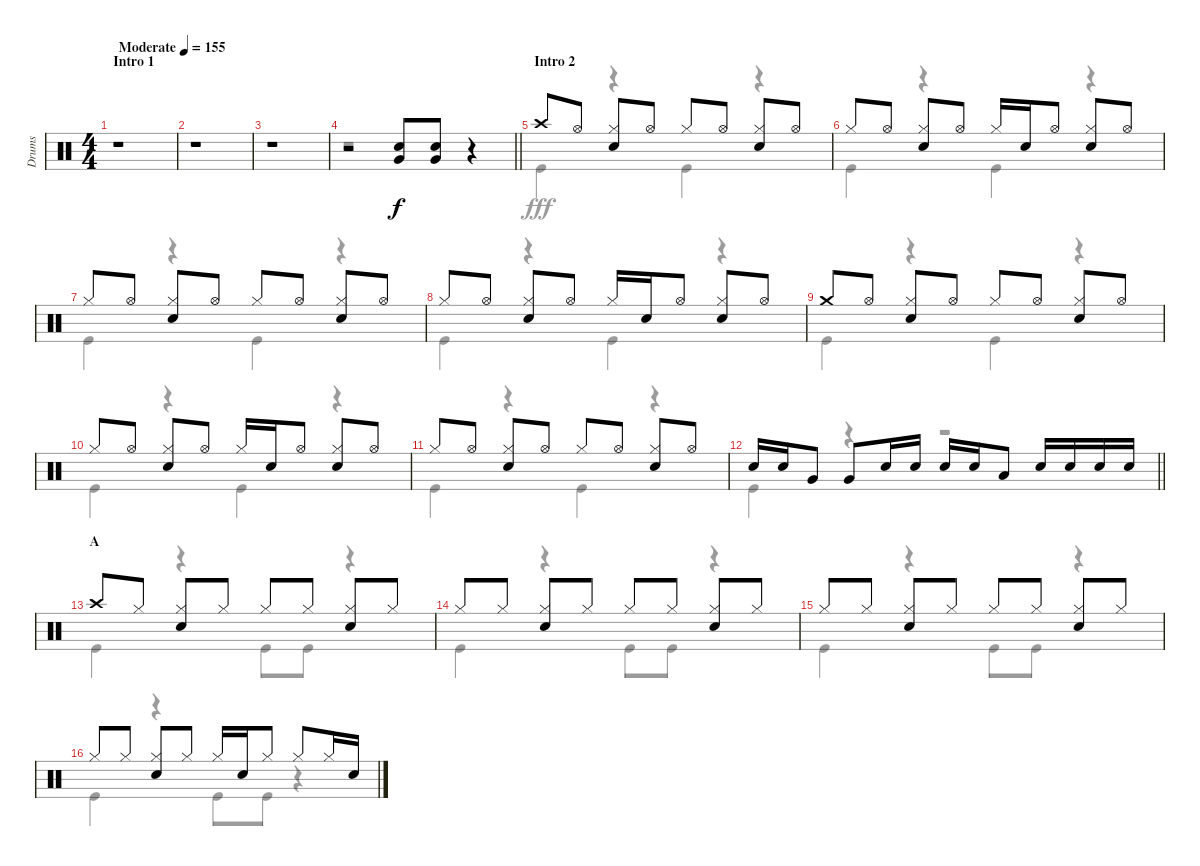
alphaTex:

\track ("Drums" "Drums") {instrument percussion}
\staff {score}
\articulation defaults
\voice
\ts (4 4)
\section ("" "Intro 1")
\tempo (155 "Moderate")
\clef neutral
\ks c
r.1{dy f} |
r.1 |
r.1 |
\barLineRight lightlight
r.2 ("Snare (hit) 2" "Very Low Tom (hit)").8 ("Snare (hit) 2" "Very Low Tom (hit)").8 r.4 |
\section ("" "Intro 2")
"Crash high (hit)".8 "Hi-Hat (open)".8 ("Hi-Hat (closed)" "Snare (hit) 2").8 "Hi-Hat (open)".8 "Hi-Hat (closed)".8 "Hi-Hat (open)".8 ("Hi-Hat (closed)" "Snare (hit) 2").8 "Hi-Hat (open)".8 |
"Hi-Hat (closed)".8 "Hi-Hat (open)".8 ("Hi-Hat (closed)" "Snare (hit) 2").8 "Hi-Hat (open)".8 "Hi-Hat (closed)".16 "Snare (hit) 2".16 "Hi-Hat (open)".8 ("Hi-Hat (closed)" "Snare (hit) 2").8 "Hi-Hat (open)".8 |
"Hi-Hat (closed)".8 "Hi-Hat (open)".8 ("Hi-Hat (closed)" "Snare (hit) 2").8 "Hi-Hat (open)".8 "Hi-Hat (closed)".8 "Hi-Hat (open)".8 ("Hi-Hat (closed)" "Snare (hit) 2").8 "Hi-Hat (open)".8 |
"Hi-Hat (closed)".8 "Hi-Hat (open)".8 ("Hi-Hat (closed)" "Snare (hit) 2").8 "Hi-Hat (open)".8 "Hi-Hat (closed)".16 "Snare (hit) 2".16 "Hi-Hat (open)".8 ("Hi-Hat (closed)" "Snare (hit) 2").8 "Hi-Hat (open)".8 |
"Crash medium (hit)".8 "Hi-Hat (open)".8 ("Hi-Hat (closed)" "Snare (hit) 2").8 "Hi-Hat (open)".8 "Hi-Hat (closed)".8 "Hi-Hat (open)".8 ("Hi-Hat (closed)" "Snare (hit) 2").8 "Hi-Hat (open)".8 |
"Hi-Hat (closed)".8 "Hi-Hat (open)".8 ("Hi-Hat (closed)" "Snare (hit) 2").8 "Hi-Hat (open)".8 "Hi-Hat (closed)".16 "Snare (hit) 2".16 "Hi-Hat (open)".8 ("Hi-Hat (closed)" "Snare (hit) 2").8 "Hi-Hat (open)".8 |
"Hi-Hat (closed)".8 "Hi-Hat (open)".8 ("Hi-Hat (closed)" "Snare (hit) 2").8 "Hi-Hat (open)".8 "Hi-Hat (closed)".8 "Hi-Hat (open)".8 ("Hi-Hat (closed)" "Snare (hit) 2").8 "Hi-Hat (open)".8 |
\barLineRight lightlight "Snare (hit) 2".16 "Snare (hit) 2".16 "Very Low Tom (hit)".8 "Very Low Tom (hit)".8 "Snare (hit) 2".16 "Snare (hit) 2".16 "Snare (hit) 2".16 "Snare (hit) 2".16 "Low Tom (hit)".8 "Snare (hit) 2".16 "Snare (hit) 2".16 "Snare (hit) 2".16 "Snare (hit) 2".16
|
\section ("" "A")
"Crash high (hit)".8 "Hi-Hat (closed)".8 ("Hi-Hat (closed)" "Snare (hit) 2").8 "Hi-Hat (closed)".8 "Hi-Hat (closed)".8 "Hi-Hat (closed)".8 ("Hi-Hat (closed)" "Snare (hit) 2").8 "Hi-Hat (closed)".8 |
"Hi-Hat (closed)".8 "Hi-Hat (closed)".8 ("Hi-Hat (closed)" "Snare (hit) 2").8 "Hi-Hat (closed)".8 "Hi-Hat (closed)".8 "Hi-Hat (closed)".8 ("Hi-Hat (closed)" "Snare (hit) 2").8 "Hi-Hat (closed)".8 |
"Hi-Hat (closed)".8 "Hi-Hat (closed)".8 ("Hi-Hat (closed)" "Snare (hit) 2").8 "Hi-Hat (closed)".8 "Hi-Hat (closed)".8 "Hi-Hat (closed)".8 ("Hi-Hat (closed)" "Snare (hit) 2").8 "Hi-Hat (closed)".8 |
"Hi-Hat (closed)".8 "Hi-Hat (closed)".8 ("Hi-Hat (closed)" "Snare (hit) 2").8 "Hi-Hat (closed)".8 "Hi-Hat (closed)".16 "Snare (hit) 2".16 "Hi-Hat (closed)".8 "Hi-Hat (closed)".8 "Hi-Hat (closed)".16 "Snare (hit) 2".16
\voice
\clef neutral
\ottava regular
\simile none
\ks c
r.1{dy fff} |
r.1 |
r.1 |
\barLineRight lightlight
r.1 |
"Kick (hit)".4 r.4 "Kick (hit)".4 r.4 |
"Kick (hit)".4 r.4 "Kick (hit)".4 r.4 |
"Kick (hit)".4 r.4 "Kick (hit)".4 r.4 |
"Kick (hit)".4 r.4 "Kick (hit)".4 r.4 |
"Kick (hit)".4 r.4 "Kick (hit)".4 r.4 |
"Kick (hit)".4 r.4 "Kick (hit)".4 r.4 |
"Kick (hit)".4 r.4 "Kick (hit)".4 r.4 |
\barLineRight lightlight "Kick (hit)".4
r.4 r.2 |
"Kick (hit)".4 r.4 "Kick (hit)".8 "Kick (hit)".8 r.4 |
"Kick (hit)".4 r.4 "Kick (hit)".8 "Kick (hit)".8 r.4 |
"Kick (hit)".4 r.4 "Kick (hit)".8 "Kick (hit)".8 r.4 |
"Kick (hit)".4 r.4 "Kick (hit)".8 "Kick (hit)".8 r.4
